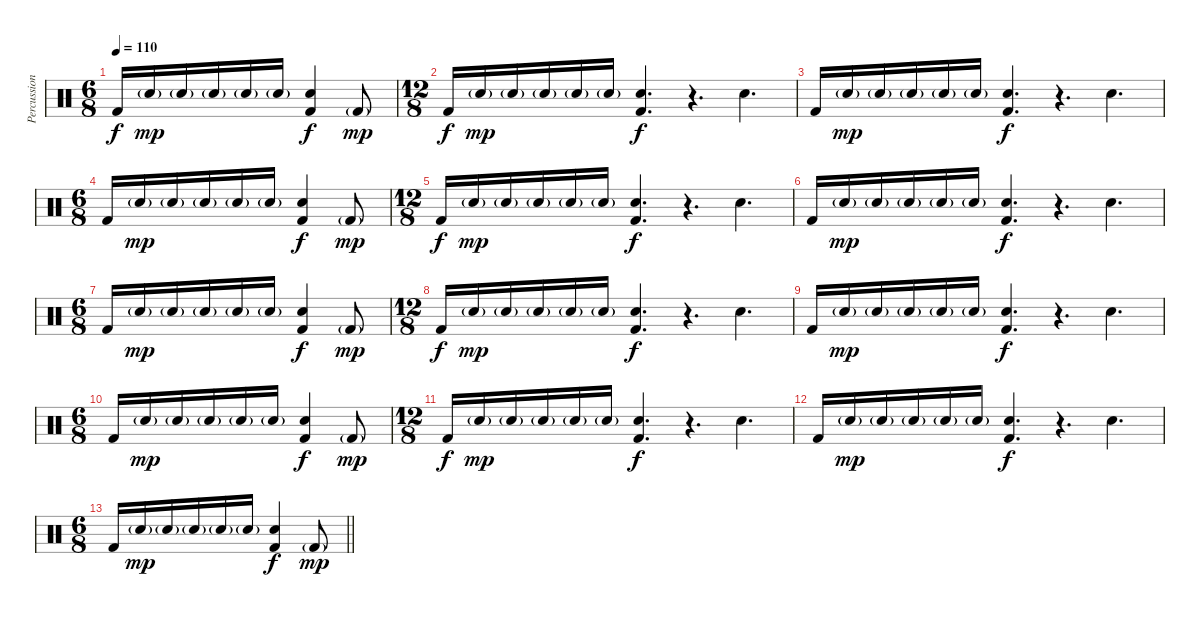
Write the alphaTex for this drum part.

\track ("Percussion" "Percussion") {instrument percussion}
\staff {score}
\articulation defaults
\ts (6 8)
\tempo 110
\clef neutral
\ks c "Kick (hit) 2".16{dy f} "Snare (hit) 2"{g}.16{dy mp} "Snare (hit) 2"{g}.16 "Snare (hit) 2"{g}.16 "Snare (hit) 2"{g}.16 "Snare (hit) 2"{g}.16
("Snare (hit) 2" "Kick (hit) 2").4{dy f} "Kick (hit) 2"{g}.8{dy mp} |
\ts (12 8)
"Kick (hit) 2".16{dy f} "Snare (hit) 2"{g}.16{dy mp} "Snare (hit) 2"{g}.16 "Snare (hit) 2"{g}.16 "Snare (hit) 2"{g}.16 "Snare (hit) 2"{g}.16 ("Snare (hit) 2" "Kick (hit) 2").4{d dy f} r.4{d} "Snare (hit) 2".4{d} |
"Kick (hit) 2".16 "Snare (hit) 2"{g}.16{dy mp} "Snare (hit) 2"{g}.16 "Snare (hit) 2"{g}.16 "Snare (hit) 2"{g}.16 "Snare (hit) 2"{g}.16 ("Snare (hit) 2" "Kick (hit) 2").4{d dy f} r.4{d} "Snare (hit) 2".4{d} |
\ts (6 8)
"Kick (hit) 2".16 "Snare (hit) 2"{g}.16{dy mp} "Snare (hit) 2"{g}.16 "Snare (hit) 2"{g}.16 "Snare (hit) 2"{g}.16 "Snare (hit) 2"{g}.16 ("Snare (hit) 2" "Kick (hit) 2").4{dy f} "Kick (hit) 2"{g}.8{dy mp} |
\ts (12 8)
"Kick (hit) 2".16{dy f} "Snare (hit) 2"{g}.16{dy mp} "Snare (hit) 2"{g}.16 "Snare (hit) 2"{g}.16 "Snare (hit) 2"{g}.16 "Snare (hit) 2"{g}.16 ("Snare (hit) 2" "Kick (hit) 2").4{d dy f} r.4{d} "Snare (hit) 2".4{d} |
"Kick (hit) 2".16 "Snare (hit) 2"{g}.16{dy mp} "Snare (hit) 2"{g}.16 "Snare (hit) 2"{g}.16 "Snare (hit) 2"{g}.16 "Snare (hit) 2"{g}.16 ("Snare (hit) 2" "Kick (hit) 2").4{d dy f} r.4{d} "Snare (hit) 2".4{d} |
\ts (6 8)
"Kick (hit) 2".16 "Snare (hit) 2"{g}.16{dy mp} "Snare (hit) 2"{g}.16 "Snare (hit) 2"{g}.16 "Snare (hit) 2"{g}.16 "Snare (hit) 2"{g}.16 ("Snare (hit) 2" "Kick (hit) 2").4{dy f} "Kick (hit) 2"{g}.8{dy mp} |
\ts (12 8)
"Kick (hit) 2".16{dy f} "Snare (hit) 2"{g}.16{dy mp} "Snare (hit) 2"{g}.16 "Snare (hit) 2"{g}.16 "Snare (hit) 2"{g}.16 "Snare (hit) 2"{g}.16 ("Snare (hit) 2" "Kick (hit) 2").4{d dy f} r.4{d} "Snare (hit) 2".4{d} |
"Kick (hit) 2".16 "Snare (hit) 2"{g}.16{dy mp} "Snare (hit) 2"{g}.16 "Snare (hit) 2"{g}.16 "Snare (hit) 2"{g}.16 "Snare (hit) 2"{g}.16 ("Snare (hit) 2" "Kick (hit) 2").4{d dy f} r.4{d} "Snare (hit) 2".4{d} |
\ts (6 8)
"Kick (hit) 2".16 "Snare (hit) 2"{g}.16{dy mp} "Snare (hit) 2"{g}.16 "Snare (hit) 2"{g}.16 "Snare (hit) 2"{g}.16 "Snare (hit) 2"{g}.16 ("Snare (hit) 2" "Kick (hit) 2").4{dy f} "Kick (hit) 2"{g}.8{dy mp} |
\ts (12 8)
"Kick (hit) 2".16{dy f} "Snare (hit) 2"{g}.16{dy mp} "Snare (hit) 2"{g}.16 "Snare (hit) 2"{g}.16 "Snare (hit) 2"{g}.16 "Snare (hit) 2"{g}.16 ("Snare (hit) 2" "Kick (hit) 2").4{d dy f} r.4{d} "Snare (hit) 2".4{d} |
"Kick (hit) 2".16 "Snare (hit) 2"{g}.16{dy mp} "Snare (hit) 2"{g}.16 "Snare (hit) 2"{g}.16 "Snare (hit) 2"{g}.16 "Snare (hit) 2"{g}.16 ("Snare (hit) 2" "Kick (hit) 2").4{d dy f} r.4{d} "Snare (hit) 2".4{d} |
\ts (6 8)
\barLineRight lightlight "Kick (hit) 2".16 "Snare (hit) 2"{g}.16{dy mp} "Snare (hit) 2"{g}.16 "Snare (hit) 2"{g}.16 "Snare (hit) 2"{g}.16 "Snare (hit) 2"{g}.16
("Snare (hit) 2" "Kick (hit) 2").4{dy f} "Kick (hit) 2"{g}.8{dy mp}
